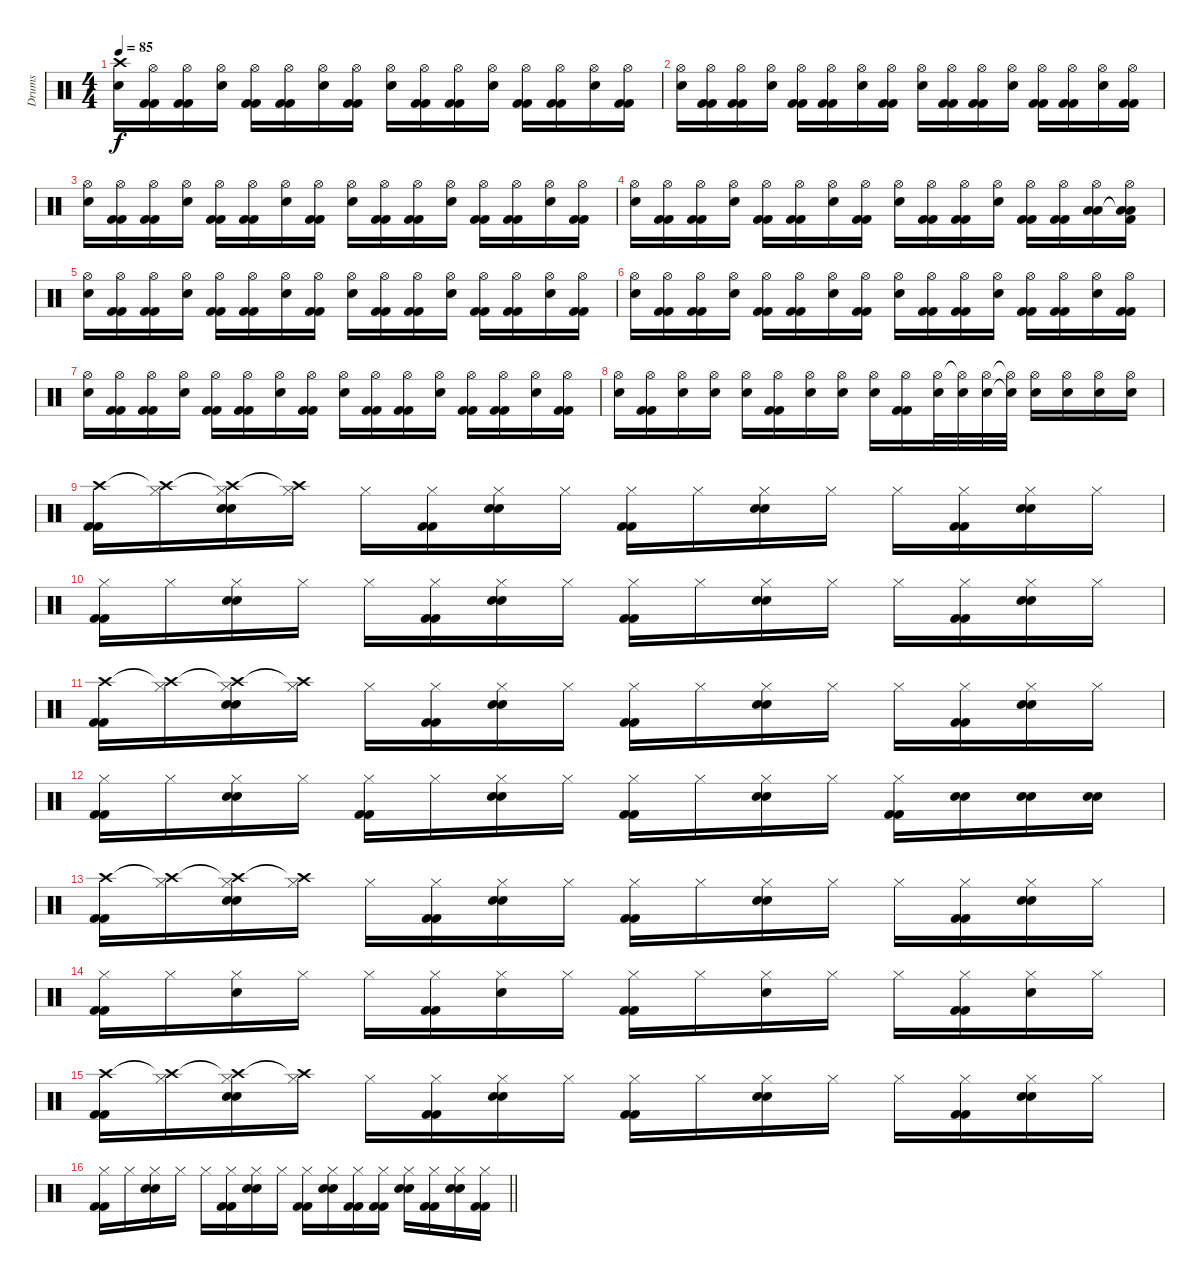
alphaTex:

\track ("Drums" "Drums") {instrument percussion}
\staff {score}
\articulation defaults
\ts (4 4)
\tempo 85
\clef neutral
\ks c
("Crash high (hit)" "Snare (hit) 2").16{dy f} ("Hi-Hat (open)" "Kick (hit) 2" "Kick (hit) 2").16 ("Hi-Hat (open)" "Kick (hit) 2" "Kick (hit) 2").16 ("Hi-Hat (open)" "Snare (hit) 2").16 ("Hi-Hat (open)" "Kick (hit) 2" "Kick (hit) 2").16 ("Hi-Hat (open)" "Kick (hit) 2" "Kick (hit) 2").16 ("Hi-Hat (open)" "Snare (hit) 2").16 ("Hi-Hat (open)" "Kick (hit) 2" "Kick (hit) 2").16 ("Hi-Hat (open)" "Snare (hit) 2").16 ("Hi-Hat (open)" "Kick (hit) 2" "Kick (hit) 2").16 ("Hi-Hat (open)" "Kick (hit) 2" "Kick (hit) 2").16 ("Hi-Hat (open)" "Snare (hit) 2").16 ("Hi-Hat (open)" "Kick (hit) 2" "Kick (hit) 2").16 ("Hi-Hat (open)" "Kick (hit) 2" "Kick (hit) 2").16 ("Hi-Hat (open)" "Snare (hit) 2").16 ("Hi-Hat (open)" "Kick (hit) 2" "Kick (hit) 2").16 |
("Hi-Hat (open)" "Snare (hit) 2").16 ("Hi-Hat (open)" "Kick (hit) 2" "Kick (hit) 2").16 ("Hi-Hat (open)" "Kick (hit) 2" "Kick (hit) 2").16 ("Hi-Hat (open)" "Snare (hit) 2").16 ("Hi-Hat (open)" "Kick (hit) 2" "Kick (hit) 2").16 ("Hi-Hat (open)" "Kick (hit) 2" "Kick (hit) 2").16 ("Hi-Hat (open)" "Snare (hit) 2").16 ("Hi-Hat (open)" "Kick (hit) 2" "Kick (hit) 2").16 ("Hi-Hat (open)" "Snare (hit) 2").16 ("Hi-Hat (open)" "Kick (hit) 2" "Kick (hit) 2").16 ("Hi-Hat (open)" "Kick (hit) 2" "Kick (hit) 2").16 ("Hi-Hat (open)" "Snare (hit) 2").16 ("Hi-Hat (open)" "Kick (hit) 2" "Kick (hit) 2").16 ("Hi-Hat (open)" "Kick (hit) 2" "Kick (hit) 2").16 ("Hi-Hat (open)" "Snare (hit) 2").16 ("Hi-Hat (open)" "Kick (hit) 2" "Kick (hit) 2").16 |
("Hi-Hat (open)" "Snare (hit) 2").16 ("Hi-Hat (open)" "Kick (hit) 2" "Kick (hit) 2").16 ("Hi-Hat (open)" "Kick (hit) 2" "Kick (hit) 2").16 ("Hi-Hat (open)" "Snare (hit) 2").16 ("Hi-Hat (open)" "Kick (hit) 2" "Kick (hit) 2").16 ("Hi-Hat (open)" "Kick (hit) 2" "Kick (hit) 2").16 ("Hi-Hat (open)" "Snare (hit) 2").16 ("Hi-Hat (open)" "Kick (hit) 2" "Kick (hit) 2").16 ("Hi-Hat (open)" "Snare (hit) 2").16 ("Hi-Hat (open)" "Kick (hit) 2" "Kick (hit) 2").16 ("Hi-Hat (open)" "Kick (hit) 2" "Kick (hit) 2").16 ("Hi-Hat (open)" "Snare (hit) 2").16 ("Hi-Hat (open)" "Kick (hit) 2" "Kick (hit) 2").16 ("Hi-Hat (open)" "Kick (hit) 2" "Kick (hit) 2").16 ("Hi-Hat (open)" "Snare (hit) 2").16 ("Hi-Hat (open)" "Kick (hit) 2" "Kick (hit) 2").16 |
("Hi-Hat (open)" "Snare (hit) 2").16 ("Hi-Hat (open)" "Kick (hit) 2" "Kick (hit) 2").16 ("Hi-Hat (open)" "Kick (hit) 2" "Kick (hit) 2").16 ("Hi-Hat (open)" "Snare (hit) 2").16 ("Hi-Hat (open)" "Kick (hit) 2" "Kick (hit) 2").16 ("Hi-Hat (open)" "Kick (hit) 2" "Kick (hit) 2").16 ("Hi-Hat (open)" "Snare (hit) 2").16 ("Hi-Hat (open)" "Kick (hit) 2" "Kick (hit) 2").16 ("Hi-Hat (open)" "Snare (hit) 2").16 ("Hi-Hat (open)" "Kick (hit) 2" "Kick (hit) 2").16 ("Hi-Hat (open)" "Kick (hit) 2" "Kick (hit) 2").16 ("Hi-Hat (open)" "Snare (hit) 2").16 ("Hi-Hat (open)" "Kick (hit) 2" "Kick (hit) 2").16 ("Hi-Hat (open)" "Kick (hit) 2" "Kick (hit) 2").16 ("Hi-Hat (open)" "Low Tom (hit)" "Low Tom (hit)").16 ("Hi-Hat (open)" "Low Tom (hit)"{t} "Low Tom (hit)"{t} "Kick (hit) 2").16 |
("Hi-Hat (open)" "Snare (hit) 2").16 ("Hi-Hat (open)" "Kick (hit) 2" "Kick (hit) 2").16 ("Hi-Hat (open)" "Kick (hit) 2" "Kick (hit) 2").16 ("Hi-Hat (open)" "Snare (hit) 2").16 ("Hi-Hat (open)" "Kick (hit) 2" "Kick (hit) 2").16 ("Hi-Hat (open)" "Kick (hit) 2" "Kick (hit) 2").16 ("Hi-Hat (open)" "Snare (hit) 2").16 ("Hi-Hat (open)" "Kick (hit) 2" "Kick (hit) 2").16 ("Hi-Hat (open)" "Snare (hit) 2").16 ("Hi-Hat (open)" "Kick (hit) 2" "Kick (hit) 2").16 ("Hi-Hat (open)" "Kick (hit) 2" "Kick (hit) 2").16 ("Hi-Hat (open)" "Snare (hit) 2").16 ("Hi-Hat (open)" "Kick (hit) 2" "Kick (hit) 2").16 ("Hi-Hat (open)" "Kick (hit) 2" "Kick (hit) 2").16 ("Hi-Hat (open)" "Snare (hit) 2").16 ("Hi-Hat (open)" "Kick (hit) 2" "Kick (hit) 2").16 |
("Hi-Hat (open)" "Snare (hit) 2").16 ("Hi-Hat (open)" "Kick (hit) 2" "Kick (hit) 2").16 ("Hi-Hat (open)" "Kick (hit) 2" "Kick (hit) 2").16 ("Hi-Hat (open)" "Snare (hit) 2").16 ("Hi-Hat (open)" "Kick (hit) 2" "Kick (hit) 2").16 ("Hi-Hat (open)" "Kick (hit) 2" "Kick (hit) 2").16 ("Hi-Hat (open)" "Snare (hit) 2").16 ("Hi-Hat (open)" "Kick (hit) 2" "Kick (hit) 2").16 ("Hi-Hat (open)" "Snare (hit) 2").16 ("Hi-Hat (open)" "Kick (hit) 2" "Kick (hit) 2").16 ("Hi-Hat (open)" "Kick (hit) 2" "Kick (hit) 2").16 ("Hi-Hat (open)" "Snare (hit) 2").16 ("Hi-Hat (open)" "Kick (hit) 2" "Kick (hit) 2").16 ("Hi-Hat (open)" "Kick (hit) 2" "Kick (hit) 2").16 ("Hi-Hat (open)" "Snare (hit) 2").16 ("Hi-Hat (open)" "Kick (hit) 2" "Kick (hit) 2").16 |
("Hi-Hat (open)" "Snare (hit) 2").16 ("Hi-Hat (open)" "Kick (hit) 2" "Kick (hit) 2").16 ("Hi-Hat (open)" "Kick (hit) 2" "Kick (hit) 2").16 ("Hi-Hat (open)" "Snare (hit) 2").16 ("Hi-Hat (open)" "Kick (hit) 2" "Kick (hit) 2").16 ("Hi-Hat (open)" "Kick (hit) 2" "Kick (hit) 2").16 ("Hi-Hat (open)" "Snare (hit) 2").16 ("Hi-Hat (open)" "Kick (hit) 2" "Kick (hit) 2").16 ("Hi-Hat (open)" "Snare (hit) 2").16 ("Hi-Hat (open)" "Kick (hit) 2" "Kick (hit) 2").16 ("Hi-Hat (open)" "Kick (hit) 2" "Kick (hit) 2").16 ("Hi-Hat (open)" "Snare (hit) 2").16 ("Hi-Hat (open)" "Kick (hit) 2" "Kick (hit) 2").16 ("Hi-Hat (open)" "Kick (hit) 2" "Kick (hit) 2").16 ("Hi-Hat (open)" "Snare (hit) 2").16 ("Hi-Hat (open)" "Kick (hit) 2" "Kick (hit) 2").16 |
("Hi-Hat (open)" "Snare (hit) 2").16 ("Hi-Hat (open)" "Kick (hit) 2" "Kick (hit) 2").16 ("Hi-Hat (open)" "Snare (hit) 2").16 ("Hi-Hat (open)" "Snare (hit) 2").16 ("Hi-Hat (open)" "Snare (hit) 2").16 ("Hi-Hat (open)" "Kick (hit) 2" "Kick (hit) 2").16 ("Hi-Hat (open)" "Snare (hit) 2").16 ("Hi-Hat (open)" "Snare (hit) 2").16 ("Hi-Hat (open)" "Snare (hit) 2").16 ("Hi-Hat (open)" "Kick (hit) 2" "Kick (hit) 2").16 ("Hi-Hat (open)" "Snare (hit) 2").32 ("Hi-Hat (open)"{t} "Snare (hit) 2").32 ("Hi-Hat (open)" "Snare (hit) 2").32 ("Hi-Hat (open)"{t} "Snare (hit) 2"{t}).32 ("Hi-Hat (open)" "Snare (hit) 2").16 ("Hi-Hat (open)" "Snare (hit) 2").16 ("Hi-Hat (open)" "Snare (hit) 2").16 ("Hi-Hat (open)" "Snare (hit) 2").16 |
("Crash high (hit)" "Kick (hit) 2" "Kick (hit) 2").16 ("Crash high (hit)"{t} "Hi-Hat (closed)").16 ("Crash high (hit)"{t} "Hi-Hat (closed)" "Snare (hit) 2" "Snare (hit) 2").16 ("Crash high (hit)"{t} "Hi-Hat (closed)").16 "Hi-Hat (closed)".16 ("Hi-Hat (closed)" "Kick (hit) 2" "Kick (hit) 2").16 ("Hi-Hat (closed)" "Snare (hit) 2" "Snare (hit) 2").16 "Hi-Hat (closed)".16 ("Hi-Hat (closed)" "Kick (hit) 2" "Kick (hit) 2").16 "Hi-Hat (closed)".16 ("Hi-Hat (closed)" "Snare (hit) 2" "Snare (hit) 2").16 "Hi-Hat (closed)".16 "Hi-Hat (closed)".16 ("Hi-Hat (closed)" "Kick (hit) 2" "Kick (hit) 2").16 ("Hi-Hat (closed)" "Snare (hit) 2" "Snare (hit) 2").16 "Hi-Hat (closed)".16 |
("Hi-Hat (closed)" "Kick (hit) 2" "Kick (hit) 2").16 "Hi-Hat (closed)".16 ("Hi-Hat (closed)" "Snare (hit) 2" "Snare (hit) 2").16 "Hi-Hat (closed)".16 "Hi-Hat (closed)".16 ("Hi-Hat (closed)" "Kick (hit) 2" "Kick (hit) 2").16 ("Hi-Hat (closed)" "Snare (hit) 2" "Snare (hit) 2").16 "Hi-Hat (closed)".16 ("Hi-Hat (closed)" "Kick (hit) 2" "Kick (hit) 2").16 "Hi-Hat (closed)".16 ("Hi-Hat (closed)" "Snare (hit) 2" "Snare (hit) 2").16 "Hi-Hat (closed)".16 "Hi-Hat (closed)".16 ("Hi-Hat (closed)" "Kick (hit) 2" "Kick (hit) 2").16 ("Hi-Hat (closed)" "Snare (hit) 2" "Snare (hit) 2").16 "Hi-Hat (closed)".16 |
("Crash high (hit)" "Kick (hit) 2" "Kick (hit) 2").16 ("Crash high (hit)"{t} "Hi-Hat (closed)").16 ("Crash high (hit)"{t} "Hi-Hat (closed)" "Snare (hit) 2" "Snare (hit) 2").16 ("Crash high (hit)"{t} "Hi-Hat (closed)").16 "Hi-Hat (closed)".16 ("Hi-Hat (closed)" "Kick (hit) 2" "Kick (hit) 2").16 ("Hi-Hat (closed)" "Snare (hit) 2" "Snare (hit) 2").16 "Hi-Hat (closed)".16 ("Hi-Hat (closed)" "Kick (hit) 2" "Kick (hit) 2").16 "Hi-Hat (closed)".16 ("Hi-Hat (closed)" "Snare (hit) 2" "Snare (hit) 2").16 "Hi-Hat (closed)".16 "Hi-Hat (closed)".16 ("Hi-Hat (closed)" "Kick (hit) 2" "Kick (hit) 2").16 ("Hi-Hat (closed)" "Snare (hit) 2" "Snare (hit) 2").16 "Hi-Hat (closed)".16 |
("Hi-Hat (closed)" "Kick (hit) 2" "Kick (hit) 2").16 "Hi-Hat (closed)".16 ("Hi-Hat (closed)" "Snare (hit) 2" "Snare (hit) 2").16 "Hi-Hat (closed)".16 ("Hi-Hat (closed)" "Kick (hit) 2" "Kick (hit) 2").16 "Hi-Hat (closed)".16 ("Hi-Hat (closed)" "Snare (hit) 2" "Snare (hit) 2").16 "Hi-Hat (closed)".16 ("Hi-Hat (closed)" "Kick (hit) 2" "Kick (hit) 2").16 "Hi-Hat (closed)".16 ("Hi-Hat (closed)" "Snare (hit) 2" "Snare (hit) 2").16 "Hi-Hat (closed)".16 ("Hi-Hat (closed)" "Kick (hit) 2" "Kick (hit) 2").16 ("Snare (hit) 2" "Snare (hit) 2").16 ("Snare (hit) 2" "Snare (hit) 2").16 ("Snare (hit) 2" "Snare (hit) 2").16 |
("Crash high (hit)" "Kick (hit) 2" "Kick (hit) 2").16 ("Crash high (hit)"{t} "Hi-Hat (closed)").16 ("Crash high (hit)"{t} "Hi-Hat (closed)" "Snare (hit) 2" "Snare (hit) 2").16 ("Crash high (hit)"{t} "Hi-Hat (closed)").16 "Hi-Hat (closed)".16 ("Hi-Hat (closed)" "Kick (hit) 2" "Kick (hit) 2").16 ("Hi-Hat (closed)" "Snare (hit) 2" "Snare (hit) 2").16 "Hi-Hat (closed)".16 ("Hi-Hat (closed)" "Kick (hit) 2" "Kick (hit) 2").16 "Hi-Hat (closed)".16 ("Hi-Hat (closed)" "Snare (hit) 2" "Snare (hit) 2").16 "Hi-Hat (closed)".16 "Hi-Hat (closed)".16 ("Hi-Hat (closed)" "Kick (hit) 2" "Kick (hit) 2").16 ("Hi-Hat (closed)" "Snare (hit) 2" "Snare (hit) 2").16 "Hi-Hat (closed)".16 |
("Hi-Hat (closed)" "Kick (hit) 2" "Kick (hit) 2").16 "Hi-Hat (closed)".16 ("Hi-Hat (closed)" "Snare (hit) 2").16 "Hi-Hat (closed)".16 "Hi-Hat (closed)".16 ("Hi-Hat (closed)" "Kick (hit) 2" "Kick (hit) 2").16 ("Hi-Hat (closed)" "Snare (hit) 2").16 "Hi-Hat (closed)".16 ("Hi-Hat (closed)" "Kick (hit) 2" "Kick (hit) 2").16 "Hi-Hat (closed)".16 ("Hi-Hat (closed)" "Snare (hit) 2").16 "Hi-Hat (closed)".16 "Hi-Hat (closed)".16 ("Hi-Hat (closed)" "Kick (hit) 2" "Kick (hit) 2").16 ("Hi-Hat (closed)" "Snare (hit) 2").16 "Hi-Hat (closed)".16 |
("Crash high (hit)" "Kick (hit) 2" "Kick (hit) 2").16 ("Crash high (hit)"{t} "Hi-Hat (closed)").16 ("Crash high (hit)"{t} "Hi-Hat (closed)" "Snare (hit) 2" "Snare (hit) 2").16 ("Crash high (hit)"{t} "Hi-Hat (closed)").16 "Hi-Hat (closed)".16 ("Hi-Hat (closed)" "Kick (hit) 2" "Kick (hit) 2").16 ("Hi-Hat (closed)" "Snare (hit) 2" "Snare (hit) 2").16 "Hi-Hat (closed)".16 ("Hi-Hat (closed)" "Kick (hit) 2" "Kick (hit) 2").16 "Hi-Hat (closed)".16 ("Hi-Hat (closed)" "Snare (hit) 2" "Snare (hit) 2").16 "Hi-Hat (closed)".16 "Hi-Hat (closed)".16 ("Hi-Hat (closed)" "Kick (hit) 2" "Kick (hit) 2").16 ("Hi-Hat (closed)" "Snare (hit) 2" "Snare (hit) 2").16 "Hi-Hat (closed)".16 |
\barLineRight lightlight
("Hi-Hat (closed)" "Kick (hit) 2" "Kick (hit) 2").16 "Hi-Hat (closed)".16 ("Hi-Hat (closed)" "Snare (hit) 2" "Snare (hit) 2").16 "Hi-Hat (closed)".16 "Hi-Hat (closed)".16 ("Hi-Hat (closed)" "Kick (hit) 2" "Kick (hit) 2").16 ("Hi-Hat (closed)" "Snare (hit) 2" "Snare (hit) 2").16 "Hi-Hat (closed)".16 ("Hi-Hat (closed)" "Kick (hit) 2" "Kick (hit) 2").16 ("Hi-Hat (closed)" "Snare (hit) 2" "Snare (hit) 2").16 ("Hi-Hat (closed)" "Kick (hit) 2" "Kick (hit) 2").16 ("Hi-Hat (closed)" "Kick (hit) 2" "Kick (hit) 2").16 ("Hi-Hat (closed)" "Snare (hit) 2" "Snare (hit) 2").16 ("Hi-Hat (closed)" "Kick (hit) 2" "Kick (hit) 2").16 ("Hi-Hat (closed)" "Snare (hit) 2" "Snare (hit) 2").16 ("Hi-Hat (closed)" "Kick (hit) 2" "Kick (hit) 2").16
